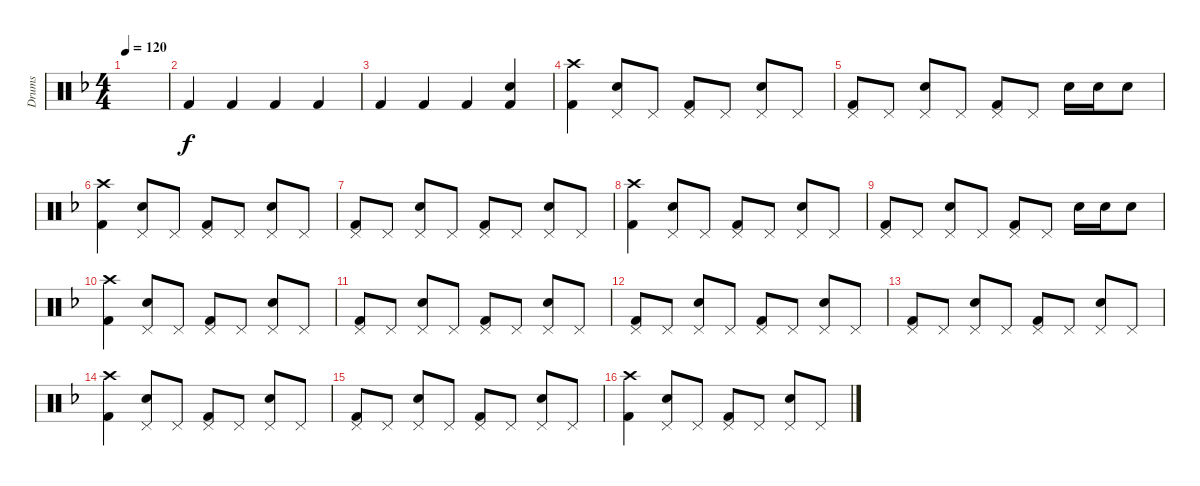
\track ("Drums" "Drums") {instrument percussion}
\staff {score}
\articulation defaults
\ts (4 4)
\tempo 120
\clef neutral
\ks f
|
"Kick (hit) 2".4 "Kick (hit) 2".4 "Kick (hit) 2".4 "Kick (hit) 2".4 |
"Kick (hit) 2".4 "Kick (hit) 2".4 "Kick (hit) 2".4 ("Electric Snare (hit)" "Kick (hit) 2").4 |
("Crash high (hit)" "Kick (hit) 2").4 ("Pedal Hi-Hat (hit)" "Electric Snare (hit)").8 "Pedal Hi-Hat (hit)".8 ("Pedal Hi-Hat (hit)" "Kick (hit) 2").8 "Pedal Hi-Hat (hit)".8 ("Pedal Hi-Hat (hit)" "Electric Snare (hit)").8 "Pedal Hi-Hat (hit)".8 |
("Pedal Hi-Hat (hit)" "Kick (hit) 2").8 "Pedal Hi-Hat (hit)".8 ("Pedal Hi-Hat (hit)" "Electric Snare (hit)").8 "Pedal Hi-Hat (hit)".8 ("Pedal Hi-Hat (hit)" "Kick (hit) 2").8 "Pedal Hi-Hat (hit)".8 "Electric Snare (hit)".16 "Electric Snare (hit)".16 "Electric Snare (hit)".8 |
("Crash high (hit)" "Kick (hit) 2").4 ("Pedal Hi-Hat (hit)" "Electric Snare (hit)").8 "Pedal Hi-Hat (hit)".8 ("Pedal Hi-Hat (hit)" "Kick (hit) 2").8 "Pedal Hi-Hat (hit)".8 ("Pedal Hi-Hat (hit)" "Electric Snare (hit)").8 "Pedal Hi-Hat (hit)".8 |
("Pedal Hi-Hat (hit)" "Kick (hit) 2").8 "Pedal Hi-Hat (hit)".8 ("Pedal Hi-Hat (hit)" "Electric Snare (hit)").8 "Pedal Hi-Hat (hit)".8 ("Pedal Hi-Hat (hit)" "Kick (hit) 2").8 "Pedal Hi-Hat (hit)".8 ("Pedal Hi-Hat (hit)" "Electric Snare (hit)").8 "Pedal Hi-Hat (hit)".8 |
("Crash high (hit)" "Kick (hit) 2").4 ("Pedal Hi-Hat (hit)" "Electric Snare (hit)").8 "Pedal Hi-Hat (hit)".8 ("Pedal Hi-Hat (hit)" "Kick (hit) 2").8 "Pedal Hi-Hat (hit)".8 ("Pedal Hi-Hat (hit)" "Electric Snare (hit)").8 "Pedal Hi-Hat (hit)".8 |
("Pedal Hi-Hat (hit)" "Kick (hit) 2").8 "Pedal Hi-Hat (hit)".8 ("Pedal Hi-Hat (hit)" "Electric Snare (hit)").8 "Pedal Hi-Hat (hit)".8 ("Pedal Hi-Hat (hit)" "Kick (hit) 2").8 "Pedal Hi-Hat (hit)".8 "Electric Snare (hit)".16 "Electric Snare (hit)".16 "Electric Snare (hit)".8 |
("Crash high (hit)" "Kick (hit) 2").4 ("Pedal Hi-Hat (hit)" "Electric Snare (hit)").8 "Pedal Hi-Hat (hit)".8 ("Pedal Hi-Hat (hit)" "Kick (hit) 2").8 "Pedal Hi-Hat (hit)".8 ("Pedal Hi-Hat (hit)" "Electric Snare (hit)").8 "Pedal Hi-Hat (hit)".8 |
("Pedal Hi-Hat (hit)" "Kick (hit) 2").8 "Pedal Hi-Hat (hit)".8 ("Pedal Hi-Hat (hit)" "Electric Snare (hit)").8 "Pedal Hi-Hat (hit)".8 ("Pedal Hi-Hat (hit)" "Kick (hit) 2").8 "Pedal Hi-Hat (hit)".8 ("Pedal Hi-Hat (hit)" "Electric Snare (hit)").8 "Pedal Hi-Hat (hit)".8 |
("Pedal Hi-Hat (hit)" "Kick (hit) 2").8 "Pedal Hi-Hat (hit)".8 ("Pedal Hi-Hat (hit)" "Electric Snare (hit)").8 "Pedal Hi-Hat (hit)".8 ("Pedal Hi-Hat (hit)" "Kick (hit) 2").8 "Pedal Hi-Hat (hit)".8 ("Pedal Hi-Hat (hit)" "Electric Snare (hit)").8 "Pedal Hi-Hat (hit)".8 |
("Pedal Hi-Hat (hit)" "Kick (hit) 2").8 "Pedal Hi-Hat (hit)".8 ("Pedal Hi-Hat (hit)" "Electric Snare (hit)").8 "Pedal Hi-Hat (hit)".8 ("Pedal Hi-Hat (hit)" "Kick (hit) 2").8 "Pedal Hi-Hat (hit)".8 ("Pedal Hi-Hat (hit)" "Electric Snare (hit)").8 "Pedal Hi-Hat (hit)".8 |
("Crash high (hit)" "Kick (hit) 2").4 ("Pedal Hi-Hat (hit)" "Electric Snare (hit)").8 "Pedal Hi-Hat (hit)".8 ("Pedal Hi-Hat (hit)" "Kick (hit) 2").8 "Pedal Hi-Hat (hit)".8 ("Pedal Hi-Hat (hit)" "Electric Snare (hit)").8 "Pedal Hi-Hat (hit)".8 |
("Pedal Hi-Hat (hit)" "Kick (hit) 2").8 "Pedal Hi-Hat (hit)".8 ("Pedal Hi-Hat (hit)" "Electric Snare (hit)").8 "Pedal Hi-Hat (hit)".8 ("Pedal Hi-Hat (hit)" "Kick (hit) 2").8 "Pedal Hi-Hat (hit)".8 ("Pedal Hi-Hat (hit)" "Electric Snare (hit)").8 "Pedal Hi-Hat (hit)".8 |
("Crash high (hit)" "Kick (hit) 2").4 ("Pedal Hi-Hat (hit)" "Electric Snare (hit)").8 "Pedal Hi-Hat (hit)".8 ("Pedal Hi-Hat (hit)" "Kick (hit) 2").8 "Pedal Hi-Hat (hit)".8 ("Pedal Hi-Hat (hit)" "Electric Snare (hit)").8 "Pedal Hi-Hat (hit)".8
